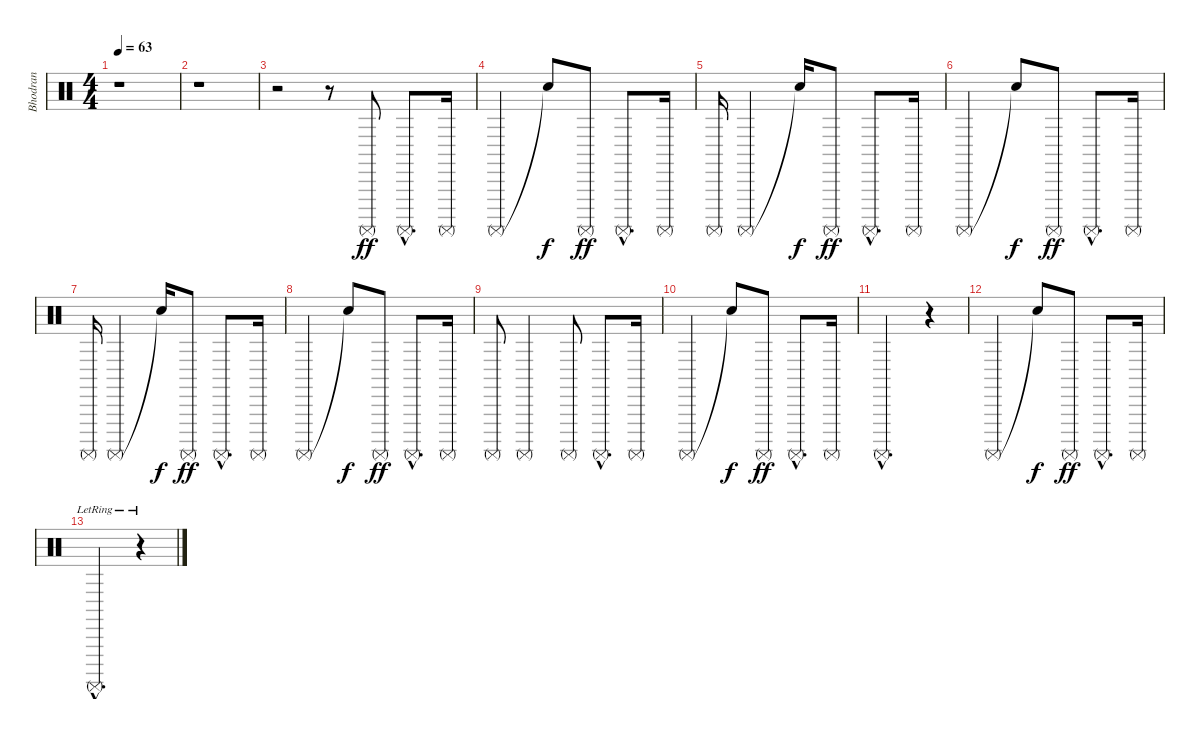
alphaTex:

\track ("Bhodran" "Bhodran") {instrument percussion}
\staff {score}
\articulation defaults
\ts (4 4)
\tempo 63
\clef neutral
\ks c
r.1{dy ff} |
r.1 |
r.2 r.8 "Surdo (mute)".8 "Surdo (mute)"{hac}.8{d} "Surdo (mute)".16 |
"Surdo (mute)".2 "Snare (hit)"{t}.8{dy f} "Surdo (mute)".8{dy ff} "Surdo (mute)"{hac}.8{d} "Surdo (mute)".16 |
"Surdo (mute)".16 "Surdo (mute)".2 "Snare (hit)"{t}.16{dy f} "Surdo (mute)".8{dy ff} "Surdo (mute)"{hac}.8{d} "Surdo (mute)".16 |
"Surdo (mute)".2 "Snare (hit)"{t}.8{dy f} "Surdo (mute)".8{dy ff} "Surdo (mute)"{hac}.8{d} "Surdo (mute)".16 |
"Surdo (mute)".16 "Surdo (mute)".2 "Snare (hit)"{t}.16{dy f} "Surdo (mute)".8{dy ff} "Surdo (mute)"{hac}.8{d} "Surdo (mute)".16 |
"Surdo (mute)".2 "Snare (hit)"{t}.8{dy f} "Surdo (mute)".8{dy ff} "Surdo (mute)"{hac}.8{d} "Surdo (mute)".16 |
"Surdo (mute)".8 "Surdo (mute)".2 "Surdo (mute)".8 "Surdo (mute)"{hac}.8{d} "Surdo (mute)".16 |
"Surdo (mute)".2 "Snare (hit)"{t}.8{dy f} "Surdo (mute)".8{dy ff} "Surdo (mute)"{hac}.8{d} "Surdo (mute)".16 |
"Surdo (mute)"{hac}.2{d} r.4 |
"Surdo (mute)".2 "Snare (hit)"{t}.8{dy f} "Surdo (mute)".8{dy ff} "Surdo (mute)"{hac}.8{d} "Surdo (mute)".16 |
"Surdo (mute)"{hac lr}.2{d} r.4
